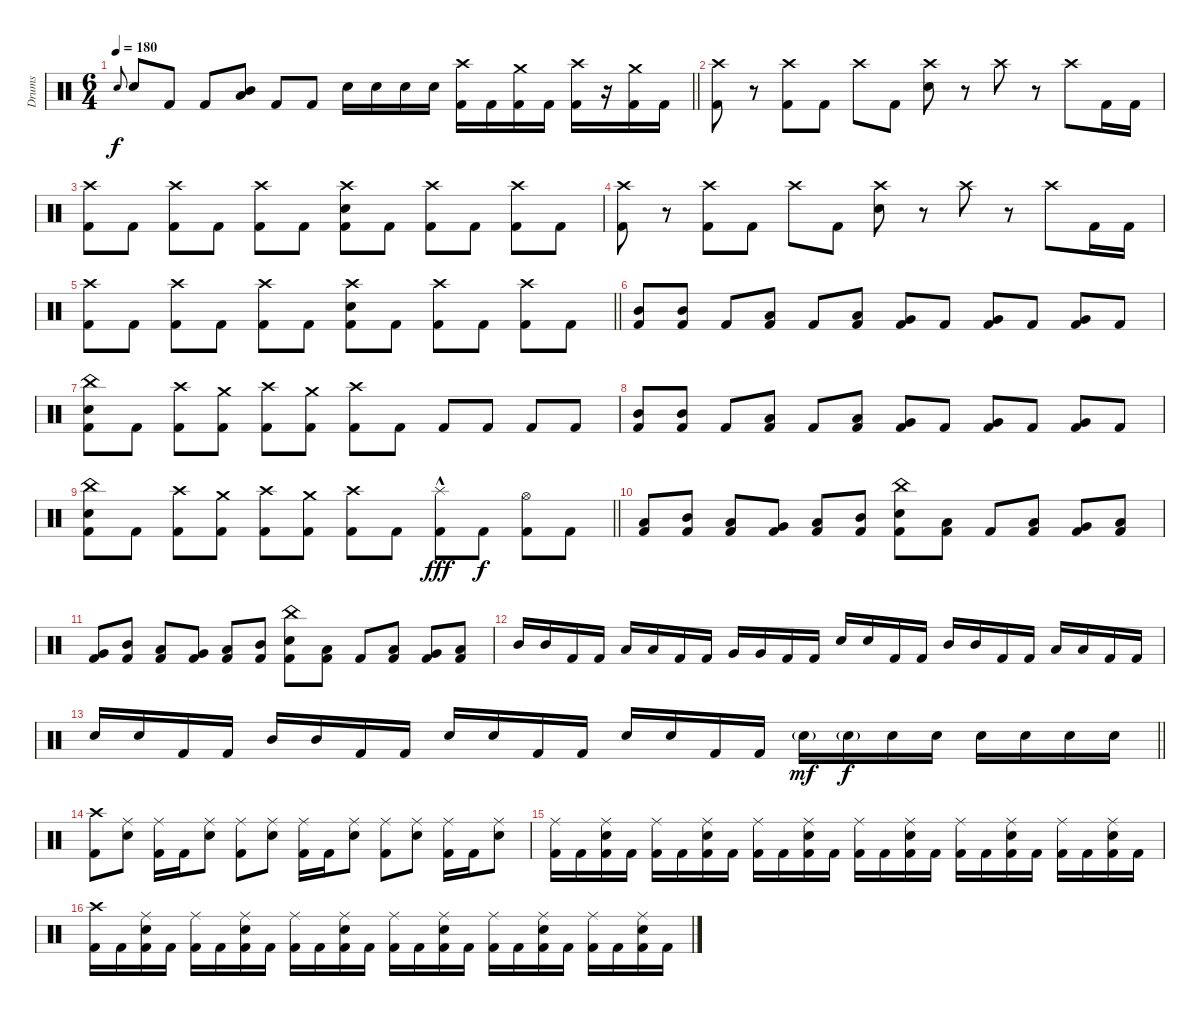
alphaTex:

\track ("Drums" "Drums") {instrument percussion}
\staff {score}
\articulation defaults
\ts (6 4)
\tempo 180
\clef neutral
\barLineRight lightlight
\ks c "Electric Snare (hit)".8{gr onbeat dy f} "Electric Snare (hit)".8 "Kick (hit) 2".8 "Kick (hit) 2".8
("Mid Tom (hit)" "Low Tom (hit)").8 "Kick (hit) 2".8 "Kick (hit) 2".8 "Electric Snare (hit)".16 "Electric Snare (hit)".16 "Electric Snare (hit)".16 "Electric Snare (hit)".16 ("Crash high (hit)" "Kick (hit) 2").16 "Kick (hit) 2".16 ("Crash medium (hit)" "Kick (hit) 2").16 "Kick (hit) 2".16 ("Crash high (hit)" "Kick (hit) 2").16 r.16 ("Crash medium (hit)" "Kick (hit) 2").16 "Kick (hit) 2".16 |
("Crash high (hit)" "Kick (hit) 2").8 r.8 ("Crash high (hit)" "Kick (hit) 2").8 "Kick (hit) 2".8 "Crash high (hit)".8 "Kick (hit) 2".8 ("Crash high (hit)" "Electric Snare (hit)").8 r.8 "Crash high (hit)".8 r.8 "Crash high (hit)".8 "Kick (hit) 2".16 "Kick (hit) 2".16 |
("Crash high (hit)" "Kick (hit) 2").8 "Kick (hit) 2".8 ("Crash high (hit)" "Kick (hit) 2").8 "Kick (hit) 2".8 ("Crash high (hit)" "Kick (hit) 2").8 "Kick (hit) 2".8 ("Crash high (hit)" "Electric Snare (hit)" "Kick (hit) 2").8 "Kick (hit) 2".8 ("Crash high (hit)" "Kick (hit) 2").8 "Kick (hit) 2".8 ("Crash high (hit)" "Kick (hit) 2").8 "Kick (hit) 2".8 |
("Crash high (hit)" "Kick (hit) 2").8 r.8 ("Crash high (hit)" "Kick (hit) 2").8 "Kick (hit) 2".8 "Crash high (hit)".8 "Kick (hit) 2".8 ("Crash high (hit)" "Electric Snare (hit)").8 r.8 "Crash high (hit)".8 r.8 "Crash high (hit)".8 "Kick (hit) 2".16 "Kick (hit) 2".16 |
\barLineRight lightlight
("Crash high (hit)" "Kick (hit) 2").8 "Kick (hit) 2".8 ("Crash high (hit)" "Kick (hit) 2").8 "Kick (hit) 2".8 ("Crash high (hit)" "Kick (hit) 2").8 "Kick (hit) 2".8 ("Crash high (hit)" "Electric Snare (hit)" "Kick (hit) 2").8 "Kick (hit) 2".8 ("Crash high (hit)" "Kick (hit) 2").8 "Kick (hit) 2".8 ("Crash high (hit)" "Kick (hit) 2").8 "Kick (hit) 2".8 |
("Mid Tom (hit)" "Kick (hit) 2").8 ("Mid Tom (hit)" "Kick (hit) 2").8 "Kick (hit) 2".8 ("Low Tom (hit)" "Kick (hit) 2").8 "Kick (hit) 2".8 ("Low Tom (hit)" "Kick (hit) 2").8 ("Very Low Tom (hit)" "Kick (hit) 2").8 "Kick (hit) 2".8 ("Very Low Tom (hit)" "Kick (hit) 2").8 "Kick (hit) 2".8 ("Very Low Tom (hit)" "Kick (hit) 2").8 "Kick (hit) 2".8 |
("China (hit)" "Electric Snare (hit)" "Kick (hit) 2").8 "Kick (hit) 2".8 ("Crash high (hit)" "Kick (hit) 2").8 ("Crash medium (hit)" "Kick (hit) 2").8 ("Crash high (hit)" "Kick (hit) 2").8 ("Crash medium (hit)" "Kick (hit) 2").8 ("Crash high (hit)" "Kick (hit) 2").8 "Kick (hit) 2".8 "Kick (hit) 2".8 "Kick (hit) 2".8 "Kick (hit) 2".8 "Kick (hit) 2".8 |
("Mid Tom (hit)" "Kick (hit) 2").8 ("Mid Tom (hit)" "Kick (hit) 2").8 "Kick (hit) 2".8 ("Low Tom (hit)" "Kick (hit) 2").8 "Kick (hit) 2".8 ("Low Tom (hit)" "Kick (hit) 2").8 ("Very Low Tom (hit)" "Kick (hit) 2").8 "Kick (hit) 2".8 ("Very Low Tom (hit)" "Kick (hit) 2").8 "Kick (hit) 2".8 ("Very Low Tom (hit)" "Kick (hit) 2").8 "Kick (hit) 2".8 |
\barLineRight lightlight
("China (hit)" "Electric Snare (hit)" "Kick (hit) 2").8 "Kick (hit) 2".8 ("Crash high (hit)" "Kick (hit) 2").8 ("Crash medium (hit)" "Kick (hit) 2").8 ("Crash high (hit)" "Kick (hit) 2").8 ("Crash medium (hit)" "Kick (hit) 2").8 ("Crash high (hit)" "Kick (hit) 2").8 "Kick (hit) 2".8 ("Splash (hit)"{hac} "Kick (hit) 2").8{dy fff} "Kick (hit) 2".8{dy f} ("Hi-Hat (open)" "Kick (hit) 2").8 "Kick (hit) 2".8 |
("Low Tom (hit)" "Kick (hit) 2").8 ("Mid Tom (hit)" "Kick (hit) 2").8 ("Low Tom (hit)" "Kick (hit) 2").8 ("Very Low Tom (hit)" "Kick (hit) 2").8 ("Low Tom (hit)" "Kick (hit) 2").8 ("Mid Tom (hit)" "Kick (hit) 2").8 ("China (hit)" "Electric Snare (hit)" "Kick (hit) 2").8 ("Low Tom (hit)" "Kick (hit) 2").8 "Kick (hit) 2".8 ("Low Tom (hit)" "Kick (hit) 2").8 ("Very Low Tom (hit)" "Kick (hit) 2").8 ("Low Tom (hit)" "Kick (hit) 2").8 |
("Very Low Tom (hit)" "Kick (hit) 2").8 ("Mid Tom (hit)" "Kick (hit) 2").8 ("Low Tom (hit)" "Kick (hit) 2").8 ("Very Low Tom (hit)" "Kick (hit) 2").8 ("Low Tom (hit)" "Kick (hit) 2").8 ("Mid Tom (hit)" "Kick (hit) 2").8 ("China (hit)" "Electric Snare (hit)" "Kick (hit) 2").8 ("Low Tom (hit)" "Kick (hit) 2").8 "Kick (hit) 2".8 ("Low Tom (hit)" "Kick (hit) 2").8 ("Very Low Tom (hit)" "Kick (hit) 2").8 ("Low Tom (hit)" "Kick (hit) 2").8 |
"Mid Tom (hit)".16 "Mid Tom (hit)".16 "Kick (hit) 2".16 "Kick (hit) 2".16 "Low Tom (hit)".16 "Low Tom (hit)".16 "Kick (hit) 2".16 "Kick (hit) 2".16 "Very Low Tom (hit)".16 "Very Low Tom (hit)".16 "Kick (hit) 2".16 "Kick (hit) 2".16 "Electric Snare (hit)".16 "Electric Snare (hit)".16 "Kick (hit) 2".16 "Kick (hit) 2".16 "Mid Tom (hit)".16 "Mid Tom (hit)".16 "Kick (hit) 2".16 "Kick (hit) 2".16 "Low Tom (hit)".16 "Low Tom (hit)".16 "Kick (hit) 2".16 "Kick (hit) 2".16 |
\barLineRight lightlight "Electric Snare (hit)".16 "Electric Snare (hit)".16 "Kick (hit) 2".16 "Kick (hit) 2".16 "Mid Tom (hit)".16 "Mid Tom (hit)".16 "Kick (hit) 2".16 "Kick (hit) 2".16 "Electric Snare (hit)".16 "Electric Snare (hit)".16 "Kick (hit) 2".16 "Kick (hit) 2".16 "Electric Snare (hit)".16 "Electric Snare (hit)".16 "Kick (hit) 2".16 "Kick (hit) 2".16 "Electric Snare (hit)"{g}.16{dy mf} "Electric Snare (hit)"{g}.16{dy f} "Electric Snare (hit)".16 "Electric Snare (hit)".16 "Electric Snare (hit)".16 "Electric Snare (hit)".16 "Electric Snare (hit)".16 "Electric Snare (hit)".16
|
("Crash high (hit)" "Kick (hit) 2").8 ("Ride (middle)" "Electric Snare (hit)").8 ("Ride (middle)" "Kick (hit) 2").16 "Kick (hit) 2".16 ("Ride (middle)" "Electric Snare (hit)").8 ("Ride (middle)" "Kick (hit) 2").8 ("Ride (middle)" "Electric Snare (hit)").8 ("Ride (middle)" "Kick (hit) 2").16 "Kick (hit) 2".16 ("Ride (middle)" "Electric Snare (hit)").8 ("Ride (middle)" "Kick (hit) 2").8 ("Ride (middle)" "Electric Snare (hit)").8 ("Ride (middle)" "Kick (hit) 2").16 "Kick (hit) 2".16 ("Ride (middle)" "Electric Snare (hit)").8 |
("Ride (middle)" "Kick (hit) 2").16 "Kick (hit) 2".16 ("Ride (middle)" "Electric Snare (hit)" "Kick (hit) 2").16 "Kick (hit) 2".16 ("Ride (middle)" "Kick (hit) 2").16 "Kick (hit) 2".16 ("Ride (middle)" "Electric Snare (hit)" "Kick (hit) 2").16 "Kick (hit) 2".16 ("Ride (middle)" "Kick (hit) 2").16 "Kick (hit) 2".16 ("Ride (middle)" "Electric Snare (hit)" "Kick (hit) 2").16 "Kick (hit) 2".16 ("Ride (middle)" "Kick (hit) 2").16 "Kick (hit) 2".16 ("Ride (middle)" "Electric Snare (hit)" "Kick (hit) 2").16 "Kick (hit) 2".16 ("Ride (middle)" "Kick (hit) 2").16 "Kick (hit) 2".16 ("Ride (middle)" "Electric Snare (hit)" "Kick (hit) 2").16 "Kick (hit) 2".16 ("Ride (middle)" "Kick (hit) 2").16 "Kick (hit) 2".16 ("Ride (middle)" "Electric Snare (hit)" "Kick (hit) 2").16 "Kick (hit) 2".16 |
("Crash high (hit)" "Kick (hit) 2").16 "Kick (hit) 2".16 ("Ride (middle)" "Electric Snare (hit)" "Kick (hit) 2").16 "Kick (hit) 2".16 ("Ride (middle)" "Kick (hit) 2").16 "Kick (hit) 2".16 ("Ride (middle)" "Electric Snare (hit)" "Kick (hit) 2").16 "Kick (hit) 2".16 ("Ride (middle)" "Kick (hit) 2").16 "Kick (hit) 2".16 ("Ride (middle)" "Electric Snare (hit)" "Kick (hit) 2").16 "Kick (hit) 2".16 ("Ride (middle)" "Kick (hit) 2").16 "Kick (hit) 2".16 ("Ride (middle)" "Electric Snare (hit)" "Kick (hit) 2").16 "Kick (hit) 2".16 ("Ride (middle)" "Kick (hit) 2").16 "Kick (hit) 2".16 ("Ride (middle)" "Electric Snare (hit)" "Kick (hit) 2").16 "Kick (hit) 2".16 ("Ride (middle)" "Kick (hit) 2").16 "Kick (hit) 2".16 ("Ride (middle)" "Electric Snare (hit)" "Kick (hit) 2").16 "Kick (hit) 2".16
